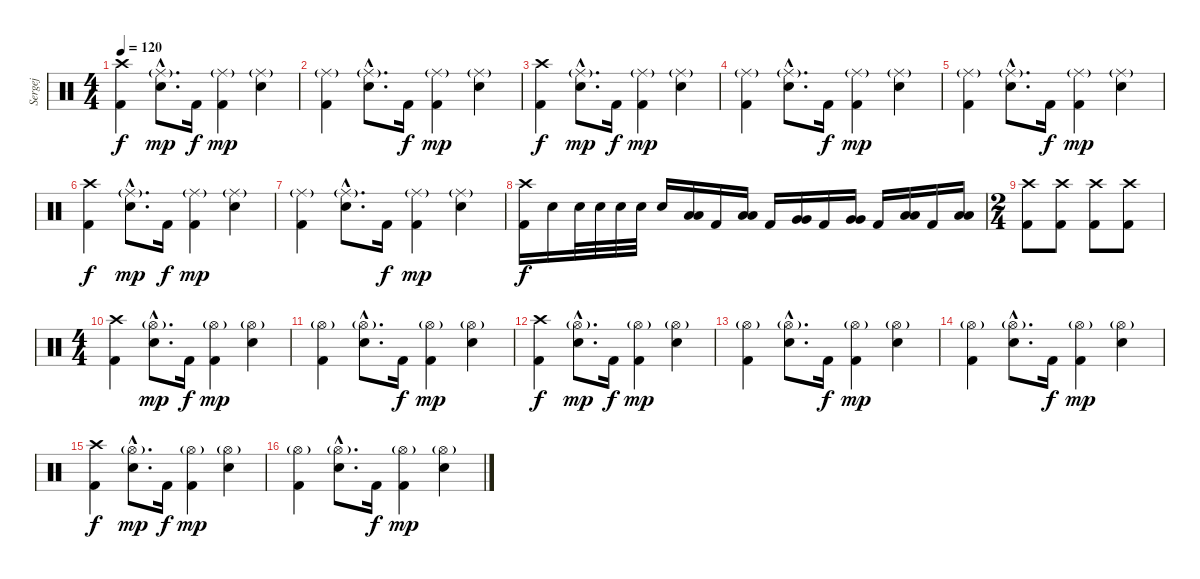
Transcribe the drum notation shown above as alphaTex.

\track ("Sergej" "Sergej") {instrument percussion}
\staff {score}
\articulation defaults
\ts (4 4)
\tempo 120
\clef neutral
\ks c
("Crash high (hit)" "Kick (hit) 2").4{dy f} ("Ride (middle)"{g hac} "Snare (hit) 2"{hac}).8{d dy mp} "Kick (hit) 2".16{dy f} ("Ride (middle)"{g} "Kick (hit) 2").4{dy mp} ("Ride (middle)"{g} "Snare (hit) 2").4 |
("Ride (middle)"{g} "Kick (hit) 2").4 ("Ride (middle)"{g hac} "Snare (hit) 2"{hac}).8{d} "Kick (hit) 2".16{dy f} ("Ride (middle)"{g} "Kick (hit) 2").4{dy mp} ("Ride (middle)"{g} "Snare (hit) 2").4 |
("Crash high (hit)" "Kick (hit) 2").4{dy f} ("Ride (middle)"{g hac} "Snare (hit) 2"{hac}).8{d dy mp} "Kick (hit) 2".16{dy f} ("Ride (middle)"{g} "Kick (hit) 2").4{dy mp} ("Ride (middle)"{g} "Snare (hit) 2").4 |
("Ride (middle)"{g} "Kick (hit) 2").4 ("Ride (middle)"{g hac} "Snare (hit) 2"{hac}).8{d} "Kick (hit) 2".16{dy f} ("Ride (middle)"{g} "Kick (hit) 2").4{dy mp} ("Ride (middle)"{g} "Snare (hit) 2").4 |
("Ride (middle)"{g} "Kick (hit) 2").4 ("Ride (middle)"{g hac} "Snare (hit) 2"{hac}).8{d} "Kick (hit) 2".16{dy f} ("Ride (middle)"{g} "Kick (hit) 2").4{dy mp} ("Ride (middle)"{g} "Snare (hit) 2").4 |
("Crash high (hit)" "Kick (hit) 2").4{dy f} ("Ride (middle)"{g hac} "Snare (hit) 2"{hac}).8{d dy mp} "Kick (hit) 2".16{dy f} ("Ride (middle)"{g} "Kick (hit) 2").4{dy mp} ("Ride (middle)"{g} "Snare (hit) 2").4 |
("Ride (middle)"{g} "Kick (hit) 2").4 ("Ride (middle)"{g hac} "Snare (hit) 2"{hac}).8{d} "Kick (hit) 2".16{dy f} ("Ride (middle)"{g} "Kick (hit) 2").4{dy mp} ("Ride (middle)"{g} "Snare (hit) 2").4 |
("Crash high (hit)" "Kick (hit) 2").16{dy f} "Snare (hit) 2".16 "Snare (hit) 2".32 "Snare (hit) 2".32 "Snare (hit) 2".32 "Snare (hit) 2".32 "Snare (hit) 2".16 ("Low Tom (hit)" "Low Tom (hit)").16{bd 60} "Kick (hit) 2".16 ("Low Tom (hit)" "Low Tom (hit)").16{bd 60} "Kick (hit) 2".16 ("Very Low Tom (hit)" "Very Low Tom (hit)").16{bd 60} "Kick (hit) 2".16 ("Very Low Tom (hit)" "Very Low Tom (hit)").16{bd 60} "Kick (hit) 2".16 ("Low Floor Tom (hit)" "Low Floor Tom (hit)").16{bd 60} "Kick (hit) 2".16 ("Low Floor Tom (hit)" "Low Floor Tom (hit)").16{bd 60} |
\ts (2 4)
("Crash high (hit)" "Kick (hit) 2").8 ("Crash high (hit)" "Kick (hit) 2").8 ("Crash high (hit)" "Kick (hit) 2").8 ("Crash high (hit)" "Kick (hit) 2").8 |
\ts (4 4)
("Crash high (hit)" "Kick (hit) 2").4 ("Hi-Hat (open)"{g hac} "Snare (hit) 2"{hac}).8{d dy mp} "Kick (hit) 2".16{dy f} ("Hi-Hat (open)"{g} "Kick (hit) 2").4{dy mp} ("Hi-Hat (open)"{g} "Snare (hit) 2").4 |
("Hi-Hat (open)"{g} "Kick (hit) 2").4 ("Hi-Hat (open)"{g hac} "Snare (hit) 2"{hac}).8{d} "Kick (hit) 2".16{dy f} ("Hi-Hat (open)"{g} "Kick (hit) 2").4{dy mp} ("Hi-Hat (open)"{g} "Snare (hit) 2").4 |
("Crash high (hit)" "Kick (hit) 2").4{dy f} ("Hi-Hat (open)"{g hac} "Snare (hit) 2"{hac}).8{d dy mp} "Kick (hit) 2".16{dy f} ("Hi-Hat (open)"{g} "Kick (hit) 2").4{dy mp} ("Hi-Hat (open)"{g} "Snare (hit) 2").4 |
("Hi-Hat (open)"{g} "Kick (hit) 2").4 ("Hi-Hat (open)"{g hac} "Snare (hit) 2"{hac}).8{d} "Kick (hit) 2".16{dy f} ("Hi-Hat (open)"{g} "Kick (hit) 2").4{dy mp} ("Hi-Hat (open)"{g} "Snare (hit) 2").4 |
("Hi-Hat (open)"{g} "Kick (hit) 2").4 ("Hi-Hat (open)"{g hac} "Snare (hit) 2"{hac}).8{d} "Kick (hit) 2".16{dy f} ("Hi-Hat (open)"{g} "Kick (hit) 2").4{dy mp} ("Hi-Hat (open)"{g} "Snare (hit) 2").4 |
("Crash high (hit)" "Kick (hit) 2").4{dy f} ("Hi-Hat (open)"{g hac} "Snare (hit) 2"{hac}).8{d dy mp} "Kick (hit) 2".16{dy f} ("Hi-Hat (open)"{g} "Kick (hit) 2").4{dy mp} ("Hi-Hat (open)"{g} "Snare (hit) 2").4 |
("Hi-Hat (open)"{g} "Kick (hit) 2").4 ("Hi-Hat (open)"{g hac} "Snare (hit) 2"{hac}).8{d} "Kick (hit) 2".16{dy f} ("Hi-Hat (open)"{g} "Kick (hit) 2").4{dy mp} ("Hi-Hat (open)"{g} "Snare (hit) 2").4
